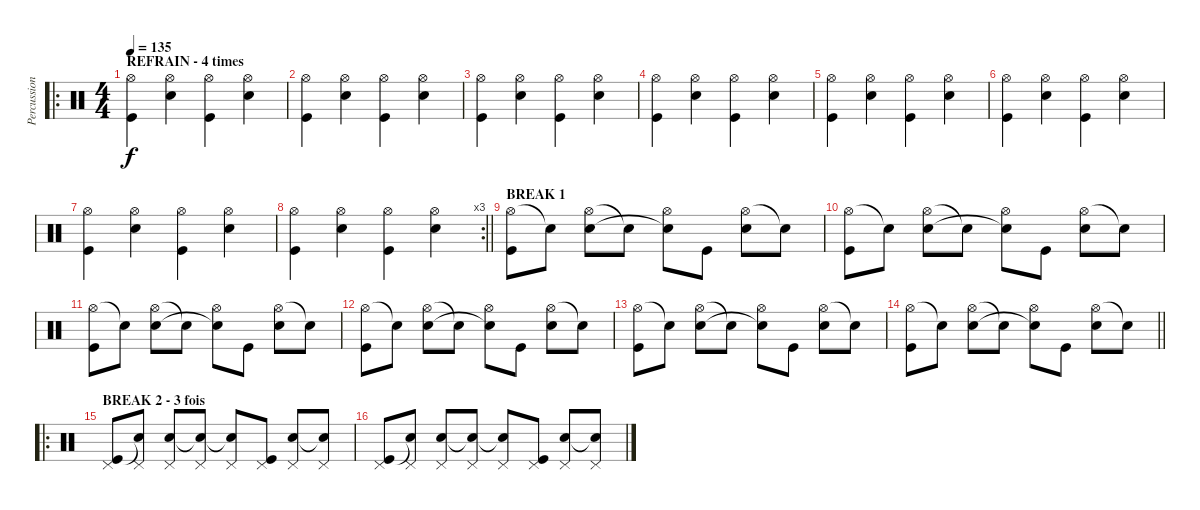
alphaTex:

\track ("Percussions" "Percussion") {instrument percussion}
\staff {score}
\articulation defaults
\ro
\ts (4 4)
\section ("" "REFRAIN - 4 times")
\tempo 135
\clef neutral
\ks c
("Hi-Hat (open)" "Kick (hit)").4{dy f} ("Hi-Hat (open)" "Electric Snare (hit)").4 ("Hi-Hat (open)" "Kick (hit)").4 ("Hi-Hat (open)" "Electric Snare (hit)").4 |
("Hi-Hat (open)" "Kick (hit)").4 ("Hi-Hat (open)" "Electric Snare (hit)").4 ("Hi-Hat (open)" "Kick (hit)").4 ("Hi-Hat (open)" "Electric Snare (hit)").4 |
("Hi-Hat (open)" "Kick (hit)").4 ("Hi-Hat (open)" "Electric Snare (hit)").4 ("Hi-Hat (open)" "Kick (hit)").4 ("Hi-Hat (open)" "Electric Snare (hit)").4 |
("Hi-Hat (open)" "Kick (hit)").4 ("Hi-Hat (open)" "Electric Snare (hit)").4 ("Hi-Hat (open)" "Kick (hit)").4 ("Hi-Hat (open)" "Electric Snare (hit)").4 |
("Hi-Hat (open)" "Kick (hit)").4 ("Hi-Hat (open)" "Electric Snare (hit)").4 ("Hi-Hat (open)" "Kick (hit)").4 ("Hi-Hat (open)" "Electric Snare (hit)").4 |
("Hi-Hat (open)" "Kick (hit)").4 ("Hi-Hat (open)" "Electric Snare (hit)").4 ("Hi-Hat (open)" "Kick (hit)").4 ("Hi-Hat (open)" "Electric Snare (hit)").4 |
("Hi-Hat (open)" "Kick (hit)").4 ("Hi-Hat (open)" "Electric Snare (hit)").4 ("Hi-Hat (open)" "Kick (hit)").4 ("Hi-Hat (open)" "Electric Snare (hit)").4 |
\rc 3
\barLineRight lightlight
("Hi-Hat (open)" "Kick (hit)").4 ("Hi-Hat (open)" "Electric Snare (hit)").4 ("Hi-Hat (open)" "Kick (hit)").4 ("Hi-Hat (open)" "Electric Snare (hit)").4 |
\section ("" "BREAK 1")
("Hi-Hat (open)" "Kick (hit)").8 "Snare (hit)"{t}.8 ("Hi-Hat (open)" "Electric Snare (hit)").8 "Snare (hit)"{t}.8 ("Hi-Hat (open)" "Snare (hit)"{t}).8 "Kick (hit)".8 ("Hi-Hat (open)" "Electric Snare (hit)").8 "Snare (hit)"{t}.8 |
("Hi-Hat (open)" "Kick (hit)").8 "Snare (hit)"{t}.8 ("Hi-Hat (open)" "Electric Snare (hit)").8 "Snare (hit)"{t}.8 ("Hi-Hat (open)" "Snare (hit)"{t}).8 "Kick (hit)".8 ("Hi-Hat (open)" "Electric Snare (hit)").8 "Snare (hit)"{t}.8 |
("Hi-Hat (open)" "Kick (hit)").8 "Snare (hit)"{t}.8 ("Hi-Hat (open)" "Electric Snare (hit)").8 "Snare (hit)"{t}.8 ("Hi-Hat (open)" "Snare (hit)"{t}).8 "Kick (hit)".8 ("Hi-Hat (open)" "Electric Snare (hit)").8 "Snare (hit)"{t}.8 |
("Hi-Hat (open)" "Kick (hit)").8 "Snare (hit)"{t}.8 ("Hi-Hat (open)" "Electric Snare (hit)").8 "Snare (hit)"{t}.8 ("Hi-Hat (open)" "Snare (hit)"{t}).8 "Kick (hit)".8 ("Hi-Hat (open)" "Electric Snare (hit)").8 "Snare (hit)"{t}.8 |
("Hi-Hat (open)" "Kick (hit)").8 "Snare (hit)"{t}.8 ("Hi-Hat (open)" "Electric Snare (hit)").8 "Snare (hit)"{t}.8 ("Hi-Hat (open)" "Snare (hit)"{t}).8 "Kick (hit)".8 ("Hi-Hat (open)" "Electric Snare (hit)").8 "Snare (hit)"{t}.8 |
\barLineRight lightlight
("Hi-Hat (open)" "Kick (hit)").8 "Snare (hit)"{t}.8 ("Hi-Hat (open)" "Electric Snare (hit)").8 "Snare (hit)"{t}.8 ("Hi-Hat (open)" "Snare (hit)"{t}).8 "Kick (hit)".8 ("Hi-Hat (open)" "Electric Snare (hit)").8 "Snare (hit)"{t}.8 |
\ro
\section ("" "BREAK 2 - 3 fois")
("Pedal Hi-Hat (hit)" "Kick (hit)").8 ("Pedal Hi-Hat (hit)" "Snare (hit)"{t}).8 ("Pedal Hi-Hat (hit)" "Electric Snare (hit)").8 ("Pedal Hi-Hat (hit)" "Snare (hit)"{t}).8 ("Pedal Hi-Hat (hit)" "Snare (hit)"{t}).8 ("Pedal Hi-Hat (hit)" "Kick (hit)").8 ("Pedal Hi-Hat (hit)" "Electric Snare (hit)").8 ("Pedal Hi-Hat (hit)" "Snare (hit)"{t}).8 |
("Pedal Hi-Hat (hit)" "Kick (hit)").8 ("Pedal Hi-Hat (hit)" "Snare (hit)"{t}).8 ("Pedal Hi-Hat (hit)" "Electric Snare (hit)").8 ("Pedal Hi-Hat (hit)" "Snare (hit)"{t}).8 ("Pedal Hi-Hat (hit)" "Snare (hit)"{t}).8 ("Pedal Hi-Hat (hit)" "Kick (hit)").8 ("Pedal Hi-Hat (hit)" "Electric Snare (hit)").8 ("Pedal Hi-Hat (hit)" "Snare (hit)"{t}).8
